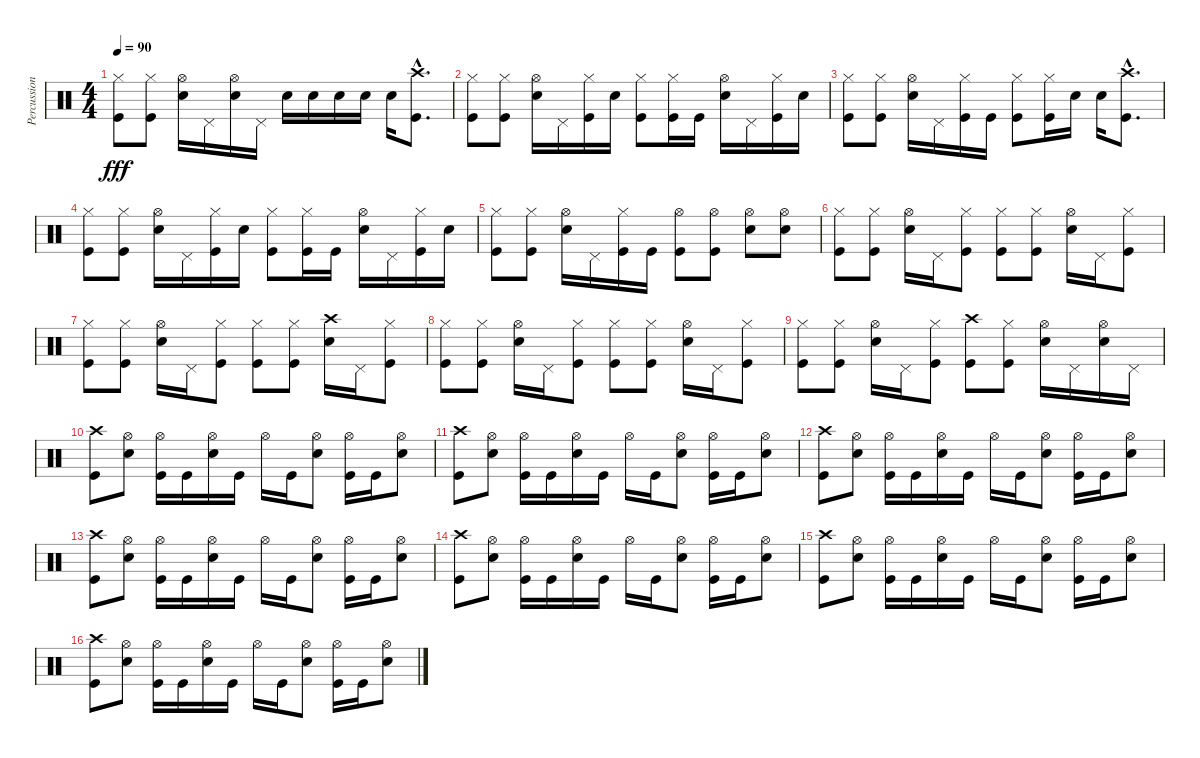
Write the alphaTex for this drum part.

\track ("Percussion" "Percussion") {instrument percussion}
\staff {score}
\articulation defaults
\ts (4 4)
\tempo 90
\clef neutral
\ks c
("Hi-Hat (closed)" "Kick (hit)").8{dy fff} ("Hi-Hat (closed)" "Kick (hit)").8 ("Hi-Hat (open)" "Electric Snare (hit)").16 "Pedal Hi-Hat (hit)".16 ("Hi-Hat (open)" "Electric Snare (hit)").16 "Pedal Hi-Hat (hit)".16 "Electric Snare (hit)".16 "Electric Snare (hit)".16 "Electric Snare (hit)".16 "Electric Snare (hit)".16 "Electric Snare (hit)".16 ("Crash high (hit)"{hac} "Kick (hit)"{hac}).8{d} |
("Hi-Hat (closed)" "Kick (hit)").8 ("Hi-Hat (closed)" "Kick (hit)").8 ("Hi-Hat (open)" "Electric Snare (hit)").16 "Pedal Hi-Hat (hit)".16 ("Hi-Hat (closed)" "Kick (hit)").16 "Electric Snare (hit)".16 ("Hi-Hat (closed)" "Kick (hit)").8 ("Hi-Hat (closed)" "Kick (hit)").16 "Kick (hit)".16 ("Hi-Hat (open)" "Electric Snare (hit)").16 "Pedal Hi-Hat (hit)".16 ("Hi-Hat (closed)" "Kick (hit)").16 "Electric Snare (hit)".16 |
("Hi-Hat (closed)" "Kick (hit)").8 ("Hi-Hat (closed)" "Kick (hit)").8 ("Hi-Hat (open)" "Electric Snare (hit)").16 "Pedal Hi-Hat (hit)".16 ("Hi-Hat (closed)" "Kick (hit)").16 "Kick (hit)".16 ("Hi-Hat (closed)" "Kick (hit)").8 ("Hi-Hat (closed)" "Kick (hit)").16 "Electric Snare (hit)".16 "Electric Snare (hit)".16 ("Crash high (hit)"{hac} "Kick (hit)"{hac}).8{d} |
("Hi-Hat (closed)" "Kick (hit)").8 ("Hi-Hat (closed)" "Kick (hit)").8 ("Hi-Hat (open)" "Electric Snare (hit)").16 "Pedal Hi-Hat (hit)".16 ("Hi-Hat (closed)" "Kick (hit)").16 "Electric Snare (hit)".16 ("Hi-Hat (closed)" "Kick (hit)").8 ("Hi-Hat (closed)" "Kick (hit)").16 "Kick (hit)".16 ("Hi-Hat (open)" "Electric Snare (hit)").16 "Pedal Hi-Hat (hit)".16 ("Hi-Hat (closed)" "Kick (hit)").16 "Electric Snare (hit)".16 |
("Hi-Hat (closed)" "Kick (hit)").8 ("Hi-Hat (closed)" "Kick (hit)").8 ("Hi-Hat (open)" "Electric Snare (hit)").16 "Pedal Hi-Hat (hit)".16 ("Hi-Hat (closed)" "Kick (hit)").16 "Kick (hit)".16 ("Hi-Hat (open)" "Kick (hit)").8 ("Hi-Hat (open)" "Kick (hit)").8 ("Hi-Hat (open)" "Electric Snare (hit)").8 ("Hi-Hat (open)" "Electric Snare (hit)").8 |
("Hi-Hat (closed)" "Kick (hit)").8 ("Hi-Hat (closed)" "Kick (hit)").8 ("Hi-Hat (open)" "Electric Snare (hit)").16 "Pedal Hi-Hat (hit)".16 ("Hi-Hat (closed)" "Kick (hit)").8 ("Hi-Hat (closed)" "Kick (hit)").8 ("Hi-Hat (closed)" "Kick (hit)").8 ("Hi-Hat (open)" "Electric Snare (hit)").16 "Pedal Hi-Hat (hit)".16 ("Hi-Hat (closed)" "Kick (hit)").8 |
("Hi-Hat (closed)" "Kick (hit)").8 ("Hi-Hat (closed)" "Kick (hit)").8 ("Hi-Hat (open)" "Electric Snare (hit)").16 "Pedal Hi-Hat (hit)".16 ("Hi-Hat (closed)" "Kick (hit)").8 ("Hi-Hat (closed)" "Kick (hit)").8 ("Hi-Hat (closed)" "Kick (hit)").8 ("Crash high (hit)" "Electric Snare (hit)").16 "Pedal Hi-Hat (hit)".16 ("Hi-Hat (closed)" "Kick (hit)").8 |
("Hi-Hat (closed)" "Kick (hit)").8 ("Hi-Hat (closed)" "Kick (hit)").8 ("Hi-Hat (open)" "Electric Snare (hit)").16 "Pedal Hi-Hat (hit)".16 ("Hi-Hat (closed)" "Kick (hit)").8 ("Hi-Hat (closed)" "Kick (hit)").8 ("Hi-Hat (closed)" "Kick (hit)").8 ("Hi-Hat (open)" "Electric Snare (hit)").16 "Pedal Hi-Hat (hit)".16 ("Hi-Hat (closed)" "Kick (hit)").8 |
("Hi-Hat (closed)" "Kick (hit)").8 ("Hi-Hat (closed)" "Kick (hit)").8 ("Hi-Hat (open)" "Electric Snare (hit)").16 "Pedal Hi-Hat (hit)".16 ("Hi-Hat (closed)" "Kick (hit)").8 ("Crash high (hit)" "Kick (hit)").8 ("Hi-Hat (closed)" "Kick (hit)").8 ("Hi-Hat (open)" "Electric Snare (hit)").16 "Pedal Hi-Hat (hit)".16 ("Hi-Hat (open)" "Electric Snare (hit)").16 "Pedal Hi-Hat (hit)".16 |
("Crash high (hit)" "Kick (hit)").8 ("Hi-Hat (open)" "Electric Snare (hit)").8 ("Hi-Hat (open)" "Kick (hit)").16 "Kick (hit)".16 ("Hi-Hat (open)" "Electric Snare (hit)").16 "Kick (hit)".16 "Hi-Hat (open)".16 "Kick (hit)".16 ("Hi-Hat (open)" "Electric Snare (hit)").8 ("Hi-Hat (open)" "Kick (hit)").16 "Kick (hit)".16 ("Hi-Hat (open)" "Electric Snare (hit)").8 |
("Crash high (hit)" "Kick (hit)").8 ("Hi-Hat (open)" "Electric Snare (hit)").8 ("Hi-Hat (open)" "Kick (hit)").16 "Kick (hit)".16 ("Hi-Hat (open)" "Electric Snare (hit)").16 "Kick (hit)".16 "Hi-Hat (open)".16 "Kick (hit)".16 ("Hi-Hat (open)" "Electric Snare (hit)").8 ("Hi-Hat (open)" "Kick (hit)").16 "Kick (hit)".16 ("Hi-Hat (open)" "Electric Snare (hit)").8 |
("Crash high (hit)" "Kick (hit)").8 ("Hi-Hat (open)" "Electric Snare (hit)").8 ("Hi-Hat (open)" "Kick (hit)").16 "Kick (hit)".16 ("Hi-Hat (open)" "Electric Snare (hit)").16 "Kick (hit)".16 "Hi-Hat (open)".16 "Kick (hit)".16 ("Hi-Hat (open)" "Electric Snare (hit)").8 ("Hi-Hat (open)" "Kick (hit)").16 "Kick (hit)".16 ("Hi-Hat (open)" "Electric Snare (hit)").8 |
("Crash high (hit)" "Kick (hit)").8 ("Hi-Hat (open)" "Electric Snare (hit)").8 ("Hi-Hat (open)" "Kick (hit)").16 "Kick (hit)".16 ("Hi-Hat (open)" "Electric Snare (hit)").16 "Kick (hit)".16 "Hi-Hat (open)".16 "Kick (hit)".16 ("Hi-Hat (open)" "Electric Snare (hit)").8 ("Hi-Hat (open)" "Kick (hit)").16 "Kick (hit)".16 ("Hi-Hat (open)" "Electric Snare (hit)").8 |
("Crash high (hit)" "Kick (hit)").8 ("Hi-Hat (open)" "Electric Snare (hit)").8 ("Hi-Hat (open)" "Kick (hit)").16 "Kick (hit)".16 ("Hi-Hat (open)" "Electric Snare (hit)").16 "Kick (hit)".16 "Hi-Hat (open)".16 "Kick (hit)".16 ("Hi-Hat (open)" "Electric Snare (hit)").8 ("Hi-Hat (open)" "Kick (hit)").16 "Kick (hit)".16 ("Hi-Hat (open)" "Electric Snare (hit)").8 |
("Crash high (hit)" "Kick (hit)").8 ("Hi-Hat (open)" "Electric Snare (hit)").8 ("Hi-Hat (open)" "Kick (hit)").16 "Kick (hit)".16 ("Hi-Hat (open)" "Electric Snare (hit)").16 "Kick (hit)".16 "Hi-Hat (open)".16 "Kick (hit)".16 ("Hi-Hat (open)" "Electric Snare (hit)").8 ("Hi-Hat (open)" "Kick (hit)").16 "Kick (hit)".16 ("Hi-Hat (open)" "Electric Snare (hit)").8 |
("Crash high (hit)" "Kick (hit)").8 ("Hi-Hat (open)" "Electric Snare (hit)").8 ("Hi-Hat (open)" "Kick (hit)").16 "Kick (hit)".16 ("Hi-Hat (open)" "Electric Snare (hit)").16 "Kick (hit)".16 "Hi-Hat (open)".16 "Kick (hit)".16 ("Hi-Hat (open)" "Electric Snare (hit)").8 ("Hi-Hat (open)" "Kick (hit)").16 "Kick (hit)".16 ("Hi-Hat (open)" "Electric Snare (hit)").8
